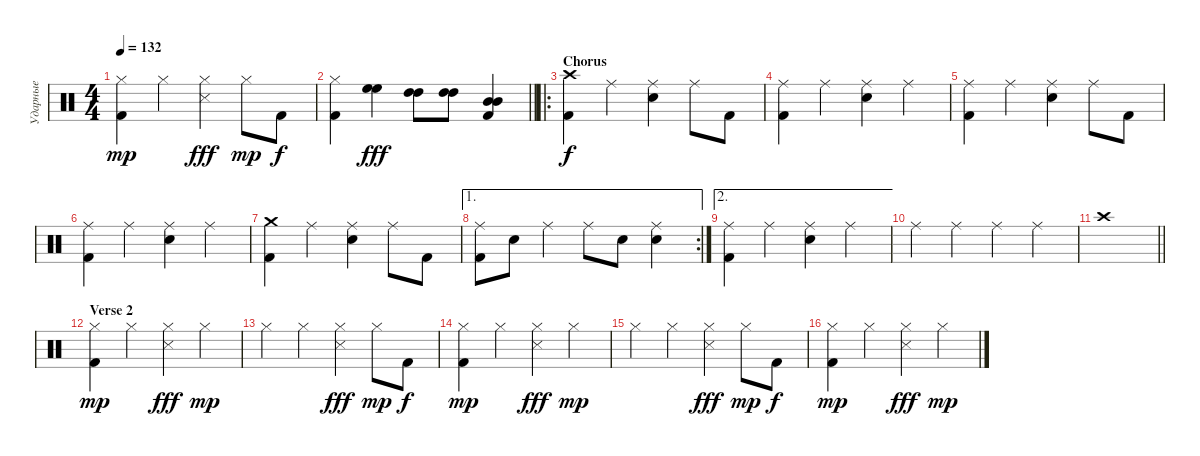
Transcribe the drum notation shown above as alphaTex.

\track ("Ударные" "Ударные") {instrument percussion}
\staff {score}
\articulation defaults
\ts (4 4)
\tempo 132
\clef neutral
\ks c
("Hi-Hat (closed)" "Kick (hit) 2").4{dy mp} "Hi-Hat (closed)".4 ("Hi-Hat (closed)" "Snare (side stick) 3").4{dy fff} "Hi-Hat (closed)".8{dy mp} "Kick (hit) 2".8{dy f} |
\barLineRight lightlight
("Hi-Hat (closed)" "Kick (hit) 2").4 ("High Floor Tom (hit)" "High Floor Tom (hit)").4{dy fff} ("High Tom (hit)" "High Tom (hit)").8 ("High Tom (hit)" "High Tom (hit)").8 ("Mid Tom (hit)" "Mid Tom (hit)" "Kick (hit) 2").4 |
\ro
\section ("" "Chorus")
("Crash high (hit)" "Kick (hit) 2").4{dy f} "Ride (middle)".4 ("Ride (middle)" "Snare (hit) 2").4 "Ride (middle)".8 "Kick (hit) 2".8 |
("Ride (middle)" "Kick (hit) 2").4 "Ride (middle)".4 ("Ride (middle)" "Snare (hit) 2").4 "Ride (middle)".4 |
("Ride (middle)" "Kick (hit) 2").4 "Ride (middle)".4 ("Ride (middle)" "Snare (hit) 2").4 "Ride (middle)".8 "Kick (hit) 2".8 |
("Ride (middle)" "Kick (hit) 2").4 "Ride (middle)".4 ("Ride (middle)" "Snare (hit) 2").4 "Ride (middle)".4 |
("Crash medium (hit)" "Kick (hit) 2").4 "Ride (middle)".4 ("Ride (middle)" "Snare (hit) 2").4 "Ride (middle)".8 "Kick (hit) 2".8 |
\ae 1
\rc 2
("Ride (middle)" "Kick (hit) 2").8 "Snare (hit) 2".8 "Ride (middle)".4 "Ride (middle)".8 "Snare (hit) 2".8 ("Ride (middle)" "Snare (hit) 2").4 |
\ae 2
("Ride (middle)" "Kick (hit) 2").4 "Ride (middle)".4 ("Ride (middle)" "Snare (hit) 2").4 "Ride (middle)".4 |
"Ride (middle)".4 "Ride (middle)".4 "Ride (middle)".4 "Ride (middle)".4 |
\barLineRight lightlight "Crash high (hit)".1
|
\section ("" "Verse 2")
("Hi-Hat (closed)" "Kick (hit) 2").4{dy mp} "Hi-Hat (closed)".4 ("Hi-Hat (closed)" "Snare (side stick) 3").4{dy fff} "Hi-Hat (closed)".4{dy mp} |
"Hi-Hat (closed)".4 "Hi-Hat (closed)".4 ("Hi-Hat (closed)" "Snare (side stick) 3").4{dy fff} "Hi-Hat (closed)".8{dy mp} "Kick (hit) 2".8{dy f} |
("Hi-Hat (closed)" "Kick (hit) 2").4{dy mp} "Hi-Hat (closed)".4 ("Hi-Hat (closed)" "Snare (side stick) 3").4{dy fff} "Hi-Hat (closed)".4{dy mp} |
"Hi-Hat (closed)".4 "Hi-Hat (closed)".4 ("Hi-Hat (closed)" "Snare (side stick) 3").4{dy fff} "Hi-Hat (closed)".8{dy mp} "Kick (hit) 2".8{dy f} |
("Hi-Hat (closed)" "Kick (hit) 2").4{dy mp} "Hi-Hat (closed)".4 ("Hi-Hat (closed)" "Snare (side stick) 3").4{dy fff} "Hi-Hat (closed)".4{dy mp}
